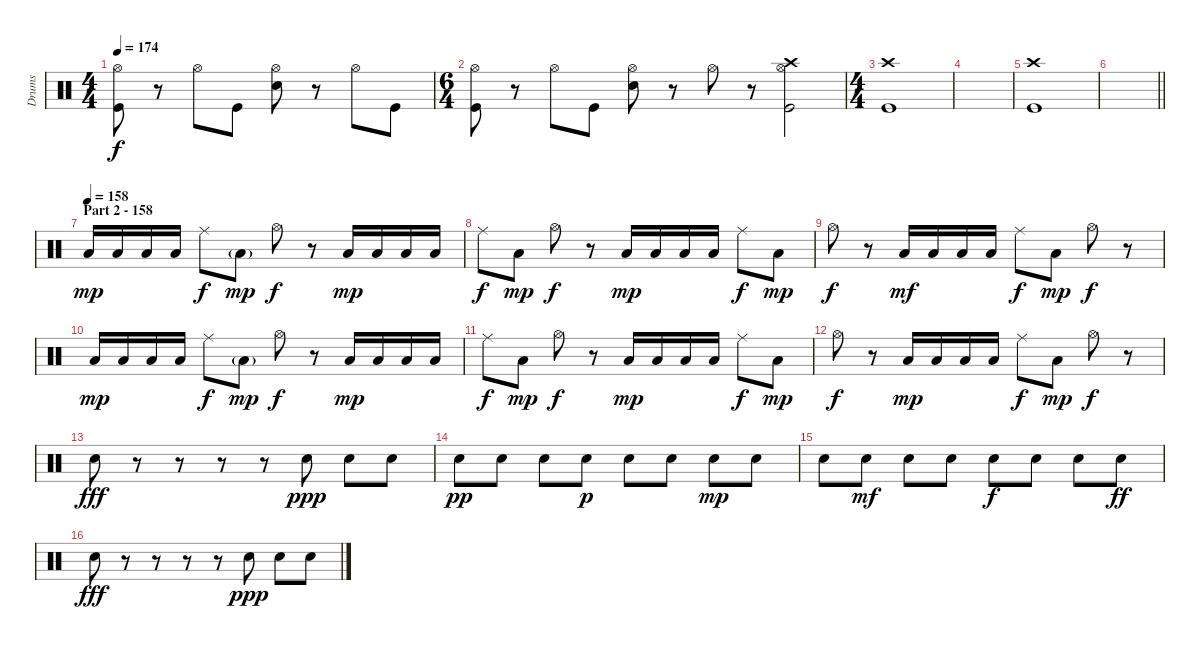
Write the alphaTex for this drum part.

\track ("Drums" "Drums") {instrument percussion}
\staff {score}
\articulation defaults
\ts (4 4)
\tempo 174
\clef neutral
\ks c
("Hi-Hat (open)" "Kick (hit)").8{dy f} r.8 "Hi-Hat (open)".8 "Kick (hit)".8 ("Hi-Hat (open)" "Snare (hit) 2").8 r.8 "Hi-Hat (open)".8 "Kick (hit)".8 |
\ts (6 4)
("Hi-Hat (open)" "Kick (hit)").8 r.8 "Hi-Hat (open)".8 "Kick (hit)".8 ("Hi-Hat (open)" "Snare (hit) 2").8 r.8 "Hi-Hat (open)".8 r.8 ("Crash high (hit)" "Hi-Hat (open)" "Kick (hit)").2 |
\ts (4 4)
("Crash high (hit)" "Kick (hit)").1 |
|
("Crash high (hit)" "Kick (hit)").1 |
\barLineRight lightlight
|
\section ("" "Part 2 - 158")
\tempo (158)
"Low Floor Tom (hit)".16{dy mp} "Low Floor Tom (hit)".16 "Low Floor Tom (hit)".16 "Low Floor Tom (hit)".16 "Ride (middle)".8{dy f} "Low Floor Tom (hit)"{g}.8{dy mp} "Hi-Hat (open)".8{dy f} r.8 "Low Floor Tom (hit)".16{dy mp} "Low Floor Tom (hit)".16 "Low Floor Tom (hit)".16 "Low Floor Tom (hit)".16 |
"Ride (middle)".8{dy f} "Low Floor Tom (hit)".8{dy mp} "Hi-Hat (open)".8{dy f} r.8 "Low Floor Tom (hit)".16{dy mp} "Low Floor Tom (hit)".16 "Low Floor Tom (hit)".16 "Low Floor Tom (hit)".16 "Ride (middle)".8{dy f} "Low Floor Tom (hit)".8{dy mp} |
"Hi-Hat (open)".8{dy f} r.8 "Low Floor Tom (hit)".16{dy mf} "Low Floor Tom (hit)".16 "Low Floor Tom (hit)".16 "Low Floor Tom (hit)".16 "Ride (middle)".8{dy f} "Low Floor Tom (hit)".8{dy mp} "Hi-Hat (open)".8{dy f} r.8 |
"Low Floor Tom (hit)".16{dy mp} "Low Floor Tom (hit)".16 "Low Floor Tom (hit)".16 "Low Floor Tom (hit)".16 "Ride (middle)".8{dy f} "Low Floor Tom (hit)"{g}.8{dy mp} "Hi-Hat (open)".8{dy f} r.8 "Low Floor Tom (hit)".16{dy mp} "Low Floor Tom (hit)".16 "Low Floor Tom (hit)".16 "Low Floor Tom (hit)".16 |
"Ride (middle)".8{dy f} "Low Floor Tom (hit)".8{dy mp} "Hi-Hat (open)".8{dy f} r.8 "Low Floor Tom (hit)".16{dy mp} "Low Floor Tom (hit)".16 "Low Floor Tom (hit)".16 "Low Floor Tom (hit)".16 "Ride (middle)".8{dy f} "Low Floor Tom (hit)".8{dy mp} |
"Hi-Hat (open)".8{dy f} r.8 "Low Floor Tom (hit)".16{dy mp} "Low Floor Tom (hit)".16 "Low Floor Tom (hit)".16 "Low Floor Tom (hit)".16 "Ride (middle)".8{dy f} "Low Floor Tom (hit)".8{dy mp} "Hi-Hat (open)".8{dy f} r.8 |
"Snare (hit) 2".8{dy fff} r.8 r.8 r.8 r.8 "Snare (hit) 2".8{dy ppp} "Snare (hit) 2".8 "Snare (hit) 2".8 |
"Snare (hit) 2".8{dy pp} "Snare (hit) 2".8 "Snare (hit) 2".8 "Snare (hit) 2".8{dy p} "Snare (hit) 2".8 "Snare (hit) 2".8 "Snare (hit) 2".8{dy mp} "Snare (hit) 2".8 |
"Snare (hit) 2".8 "Snare (hit) 2".8{dy mf} "Snare (hit) 2".8 "Snare (hit) 2".8 "Snare (hit) 2".8{dy f} "Snare (hit) 2".8 "Snare (hit) 2".8 "Snare (hit) 2".8{dy ff} |
"Snare (hit) 2".8{dy fff} r.8 r.8 r.8 r.8 "Snare (hit) 2".8{dy ppp} "Snare (hit) 2".8 "Snare (hit) 2".8
